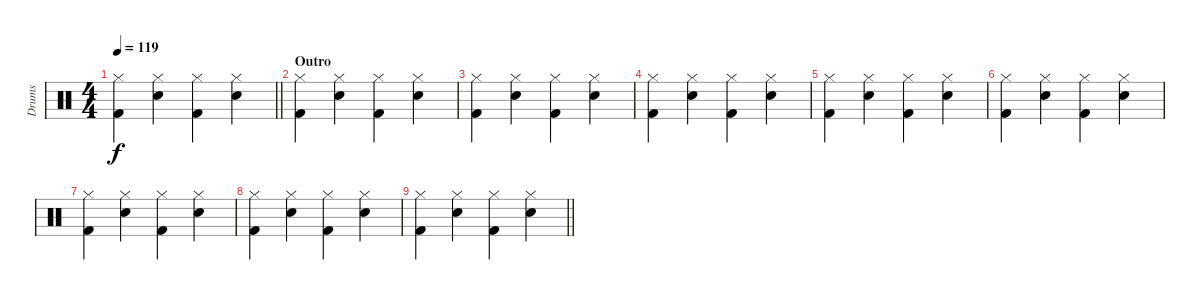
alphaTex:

\track ("Drums" "Drums") {instrument percussion}
\staff {score}
\articulation defaults
\ts (4 4)
\tempo 119
\clef neutral
\barLineRight lightlight
\ks c
("Hi-Hat (closed)" "Kick (hit) 2").4{dy f} ("Hi-Hat (closed)" "Hand Clap (hit)").4 ("Hi-Hat (closed)" "Kick (hit) 2").4 ("Hi-Hat (closed)" "Hand Clap (hit)").4 |
\section ("" "Outro")
("Hi-Hat (closed)" "Kick (hit) 2").4 ("Hi-Hat (closed)" "Hand Clap (hit)").4 ("Hi-Hat (closed)" "Kick (hit) 2").4 ("Hi-Hat (closed)" "Hand Clap (hit)").4 |
("Hi-Hat (closed)" "Kick (hit) 2").4 ("Hi-Hat (closed)" "Hand Clap (hit)").4 ("Hi-Hat (closed)" "Kick (hit) 2").4 ("Hi-Hat (closed)" "Hand Clap (hit)").4 |
("Hi-Hat (closed)" "Kick (hit) 2").4 ("Hi-Hat (closed)" "Hand Clap (hit)").4 ("Hi-Hat (closed)" "Kick (hit) 2").4 ("Hi-Hat (closed)" "Hand Clap (hit)").4 |
("Hi-Hat (closed)" "Kick (hit) 2").4 ("Hi-Hat (closed)" "Hand Clap (hit)").4 ("Hi-Hat (closed)" "Kick (hit) 2").4 ("Hi-Hat (closed)" "Hand Clap (hit)").4 |
("Hi-Hat (closed)" "Kick (hit) 2").4 ("Hi-Hat (closed)" "Hand Clap (hit)").4 ("Hi-Hat (closed)" "Kick (hit) 2").4 ("Hi-Hat (closed)" "Hand Clap (hit)").4 |
("Hi-Hat (closed)" "Kick (hit) 2").4 ("Hi-Hat (closed)" "Hand Clap (hit)").4 ("Hi-Hat (closed)" "Kick (hit) 2").4 ("Hi-Hat (closed)" "Hand Clap (hit)").4 |
("Hi-Hat (closed)" "Kick (hit) 2").4 ("Hi-Hat (closed)" "Hand Clap (hit)").4 ("Hi-Hat (closed)" "Kick (hit) 2").4 ("Hi-Hat (closed)" "Hand Clap (hit)").4 |
\barLineRight lightlight
("Hi-Hat (closed)" "Kick (hit) 2").4 ("Hi-Hat (closed)" "Hand Clap (hit)").4 ("Hi-Hat (closed)" "Kick (hit) 2").4 ("Hi-Hat (closed)" "Hand Clap (hit)").4
